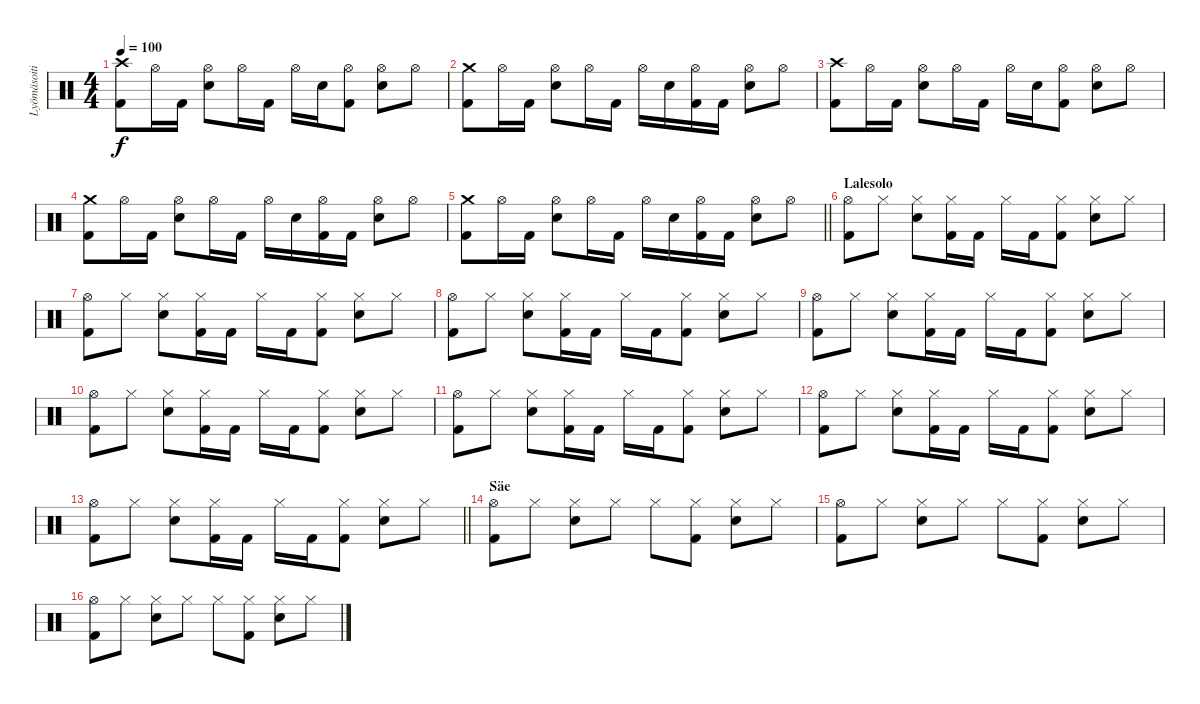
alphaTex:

\track ("Lyömäsoitin" "Lyömäsoiti") {instrument percussion}
\staff {score}
\articulation defaults
\ts (4 4)
\tempo 100
\clef neutral
\ks c
("Crash high (hit)" "Kick (hit) 2").8{dy f} "Hi-Hat (open)".16 "Kick (hit) 2".16 ("Hi-Hat (open)" "Snare (hit) 2").8 "Hi-Hat (open)".16 "Kick (hit) 2".16 "Hi-Hat (open)".16 "Snare (hit) 2".16 ("Hi-Hat (open)" "Kick (hit) 2").8 ("Hi-Hat (open)" "Snare (hit) 2").8 "Hi-Hat (open)".8 |
("Crash medium (hit)" "Kick (hit) 2").8 "Hi-Hat (open)".16 "Kick (hit) 2".16 ("Hi-Hat (open)" "Snare (hit) 2").8 "Hi-Hat (open)".16 "Kick (hit) 2".16 "Hi-Hat (open)".16 "Snare (hit) 2".16 ("Hi-Hat (open)" "Kick (hit) 2").16 "Kick (hit) 2".16 ("Hi-Hat (open)" "Snare (hit) 2").8 "Hi-Hat (open)".8 |
("Crash high (hit)" "Kick (hit) 2").8 "Hi-Hat (open)".16 "Kick (hit) 2".16 ("Hi-Hat (open)" "Snare (hit) 2").8 "Hi-Hat (open)".16 "Kick (hit) 2".16 "Hi-Hat (open)".16 "Snare (hit) 2".16 ("Hi-Hat (open)" "Kick (hit) 2").8 ("Hi-Hat (open)" "Snare (hit) 2").8 "Hi-Hat (open)".8 |
("Crash medium (hit)" "Kick (hit) 2").8 "Hi-Hat (open)".16 "Kick (hit) 2".16 ("Hi-Hat (open)" "Snare (hit) 2").8 "Hi-Hat (open)".16 "Kick (hit) 2".16 "Hi-Hat (open)".16 "Snare (hit) 2".16 ("Hi-Hat (open)" "Kick (hit) 2").16 "Kick (hit) 2".16 ("Hi-Hat (open)" "Snare (hit) 2").8 "Hi-Hat (open)".8 |
\barLineRight lightlight
("Crash medium (hit)" "Kick (hit) 2").8 "Hi-Hat (open)".16 "Kick (hit) 2".16 ("Hi-Hat (open)" "Snare (hit) 2").8 "Hi-Hat (open)".16 "Kick (hit) 2".16 "Hi-Hat (open)".16 "Snare (hit) 2".16 ("Hi-Hat (open)" "Kick (hit) 2").16 "Kick (hit) 2".16 ("Hi-Hat (open)" "Snare (hit) 2").8 "Hi-Hat (open)".8 |
\section ("" "Lalesolo")
("Hi-Hat (open)" "Kick (hit) 2").8 "Hi-Hat (closed)".8 ("Hi-Hat (closed)" "Snare (hit) 2").8 ("Hi-Hat (closed)" "Kick (hit) 2").16 "Kick (hit) 2".16 "Hi-Hat (closed)".16 "Kick (hit) 2".16 ("Hi-Hat (closed)" "Kick (hit) 2").8 ("Hi-Hat (closed)" "Snare (hit) 2").8 "Hi-Hat (closed)".8 |
("Hi-Hat (open)" "Kick (hit) 2").8 "Hi-Hat (closed)".8 ("Hi-Hat (closed)" "Snare (hit) 2").8 ("Hi-Hat (closed)" "Kick (hit) 2").16 "Kick (hit) 2".16 "Hi-Hat (closed)".16 "Kick (hit) 2".16 ("Hi-Hat (closed)" "Kick (hit) 2").8 ("Hi-Hat (closed)" "Snare (hit) 2").8 "Hi-Hat (closed)".8 |
("Hi-Hat (open)" "Kick (hit) 2").8 "Hi-Hat (closed)".8 ("Hi-Hat (closed)" "Snare (hit) 2").8 ("Hi-Hat (closed)" "Kick (hit) 2").16 "Kick (hit) 2".16 "Hi-Hat (closed)".16 "Kick (hit) 2".16 ("Hi-Hat (closed)" "Kick (hit) 2").8 ("Hi-Hat (closed)" "Snare (hit) 2").8 "Hi-Hat (closed)".8 |
("Hi-Hat (open)" "Kick (hit) 2").8 "Hi-Hat (closed)".8 ("Hi-Hat (closed)" "Snare (hit) 2").8 ("Hi-Hat (closed)" "Kick (hit) 2").16 "Kick (hit) 2".16 "Hi-Hat (closed)".16 "Kick (hit) 2".16 ("Hi-Hat (closed)" "Kick (hit) 2").8 ("Hi-Hat (closed)" "Snare (hit) 2").8 "Hi-Hat (closed)".8 |
("Hi-Hat (open)" "Kick (hit) 2").8 "Hi-Hat (closed)".8 ("Hi-Hat (closed)" "Snare (hit) 2").8 ("Hi-Hat (closed)" "Kick (hit) 2").16 "Kick (hit) 2".16 "Hi-Hat (closed)".16 "Kick (hit) 2".16 ("Hi-Hat (closed)" "Kick (hit) 2").8 ("Hi-Hat (closed)" "Snare (hit) 2").8 "Hi-Hat (closed)".8 |
("Hi-Hat (open)" "Kick (hit) 2").8 "Hi-Hat (closed)".8 ("Hi-Hat (closed)" "Snare (hit) 2").8 ("Hi-Hat (closed)" "Kick (hit) 2").16 "Kick (hit) 2".16 "Hi-Hat (closed)".16 "Kick (hit) 2".16 ("Hi-Hat (closed)" "Kick (hit) 2").8 ("Hi-Hat (closed)" "Snare (hit) 2").8 "Hi-Hat (closed)".8 |
("Hi-Hat (open)" "Kick (hit) 2").8 "Hi-Hat (closed)".8 ("Hi-Hat (closed)" "Snare (hit) 2").8 ("Hi-Hat (closed)" "Kick (hit) 2").16 "Kick (hit) 2".16 "Hi-Hat (closed)".16 "Kick (hit) 2".16 ("Hi-Hat (closed)" "Kick (hit) 2").8 ("Hi-Hat (closed)" "Snare (hit) 2").8 "Hi-Hat (closed)".8 |
\barLineRight lightlight
("Hi-Hat (open)" "Kick (hit) 2").8 "Hi-Hat (closed)".8 ("Hi-Hat (closed)" "Snare (hit) 2").8 ("Hi-Hat (closed)" "Kick (hit) 2").16 "Kick (hit) 2".16 "Hi-Hat (closed)".16 "Kick (hit) 2".16 ("Hi-Hat (closed)" "Kick (hit) 2").8 ("Hi-Hat (closed)" "Snare (hit) 2").8 "Hi-Hat (closed)".8 |
\section ("" "Säe")
("Hi-Hat (open)" "Kick (hit) 2").8 "Hi-Hat (closed)".8 ("Hi-Hat (closed)" "Snare (hit) 2").8 "Hi-Hat (closed)".8 "Hi-Hat (closed)".8 ("Hi-Hat (closed)" "Kick (hit) 2").8 ("Hi-Hat (closed)" "Snare (hit) 2").8 "Hi-Hat (closed)".8 |
("Hi-Hat (open)" "Kick (hit) 2").8 "Hi-Hat (closed)".8 ("Hi-Hat (closed)" "Snare (hit) 2").8 "Hi-Hat (closed)".8 "Hi-Hat (closed)".8 ("Hi-Hat (closed)" "Kick (hit) 2").8 ("Hi-Hat (closed)" "Snare (hit) 2").8 "Hi-Hat (closed)".8 |
("Hi-Hat (open)" "Kick (hit) 2").8 "Hi-Hat (closed)".8 ("Hi-Hat (closed)" "Snare (hit) 2").8 "Hi-Hat (closed)".8 "Hi-Hat (closed)".8 ("Hi-Hat (closed)" "Kick (hit) 2").8 ("Hi-Hat (closed)" "Snare (hit) 2").8 "Hi-Hat (closed)".8
